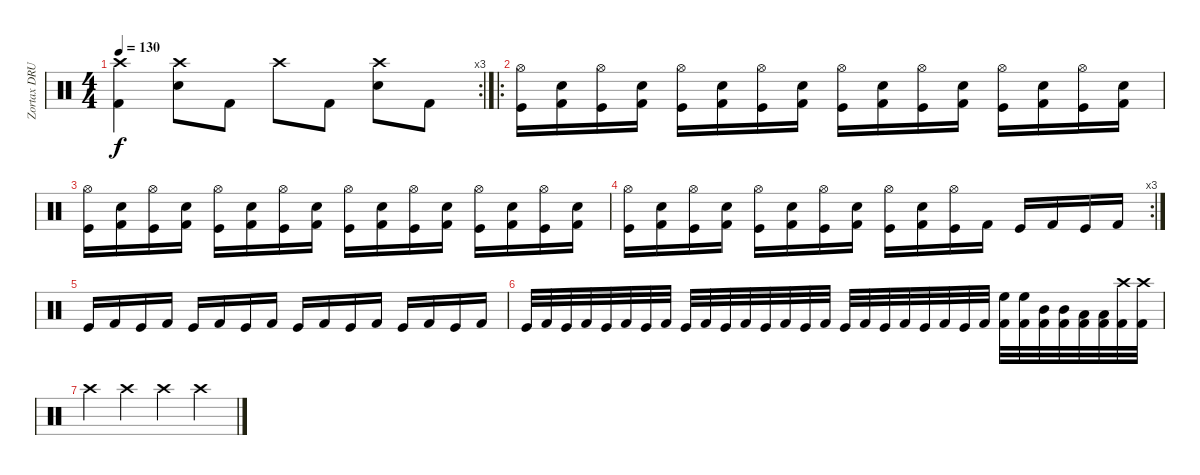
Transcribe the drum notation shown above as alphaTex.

\track ("Zortax DRUMS" "Zortax DRU") {instrument percussion}
\staff {score}
\articulation defaults
\rc 3
\ts (4 4)
\tempo 130
\clef neutral
\ks c
("Crash high (hit)" "Kick (hit) 2").4{dy f} ("Crash high (hit)" "Snare (hit) 2").8 "Kick (hit) 2".8 "Crash high (hit)".8 "Kick (hit) 2".8 ("Crash high (hit)" "Snare (hit) 2").8 "Kick (hit) 2".8 |
\ro
("Kick (hit)" "Hi-Hat (open)").16 ("Kick (hit) 2" "Snare (hit) 2").16 ("Kick (hit)" "Hi-Hat (open)").16 ("Kick (hit) 2" "Snare (hit) 2").16 ("Kick (hit)" "Hi-Hat (open)").16 ("Kick (hit) 2" "Snare (hit) 2").16 ("Kick (hit)" "Hi-Hat (open)").16 ("Kick (hit) 2" "Snare (hit) 2").16 ("Kick (hit)" "Hi-Hat (open)").16 ("Kick (hit) 2" "Snare (hit) 2").16 ("Kick (hit)" "Hi-Hat (open)").16 ("Kick (hit) 2" "Snare (hit) 2").16 ("Kick (hit)" "Hi-Hat (open)").16 ("Kick (hit) 2" "Snare (hit) 2").16 ("Kick (hit)" "Hi-Hat (open)").16 ("Kick (hit) 2" "Snare (hit) 2").16 |
("Kick (hit)" "Hi-Hat (open)").16 ("Kick (hit) 2" "Snare (hit) 2").16 ("Kick (hit)" "Hi-Hat (open)").16 ("Kick (hit) 2" "Snare (hit) 2").16 ("Kick (hit)" "Hi-Hat (open)").16 ("Kick (hit) 2" "Snare (hit) 2").16 ("Kick (hit)" "Hi-Hat (open)").16 ("Kick (hit) 2" "Snare (hit) 2").16 ("Kick (hit)" "Hi-Hat (open)").16 ("Kick (hit) 2" "Snare (hit) 2").16 ("Kick (hit)" "Hi-Hat (open)").16 ("Kick (hit) 2" "Snare (hit) 2").16 ("Kick (hit)" "Hi-Hat (open)").16 ("Kick (hit) 2" "Snare (hit) 2").16 ("Kick (hit)" "Hi-Hat (open)").16 ("Kick (hit) 2" "Snare (hit) 2").16 |
\rc 3
("Kick (hit)" "Hi-Hat (open)").16 ("Kick (hit) 2" "Snare (hit) 2").16 ("Kick (hit)" "Hi-Hat (open)").16 ("Kick (hit) 2" "Snare (hit) 2").16 ("Kick (hit)" "Hi-Hat (open)").16 ("Kick (hit) 2" "Snare (hit) 2").16 ("Kick (hit)" "Hi-Hat (open)").16 ("Kick (hit) 2" "Snare (hit) 2").16 ("Kick (hit)" "Hi-Hat (open)").16 ("Kick (hit) 2" "Snare (hit) 2").16 ("Kick (hit)" "Hi-Hat (open)").16 "Kick (hit) 2".16 "Kick (hit)".16 "Kick (hit) 2".16 "Kick (hit)".16 "Kick (hit) 2".16 |
"Kick (hit)".16 "Kick (hit) 2".16 "Kick (hit)".16 "Kick (hit) 2".16 "Kick (hit)".16 "Kick (hit) 2".16 "Kick (hit)".16 "Kick (hit) 2".16 "Kick (hit)".16 "Kick (hit) 2".16 "Kick (hit)".16 "Kick (hit) 2".16 "Kick (hit)".16 "Kick (hit) 2".16 "Kick (hit)".16 "Kick (hit) 2".16 |
"Kick (hit)".32 "Kick (hit) 2".32 "Kick (hit)".32 "Kick (hit) 2".32 "Kick (hit)".32 "Kick (hit) 2".32 "Kick (hit)".32 "Kick (hit) 2".32 "Kick (hit)".32 "Kick (hit) 2".32 "Kick (hit)".32 "Kick (hit) 2".32 "Kick (hit)".32 "Kick (hit) 2".32 "Kick (hit)".32 "Kick (hit) 2".32 "Kick (hit)".32 "Kick (hit) 2".32 "Kick (hit)".32 "Kick (hit) 2".32 "Kick (hit)".32 "Kick (hit) 2".32 "Kick (hit)".32 "Kick (hit) 2".32 ("High Floor Tom (hit)" "Kick (hit) 2").32 ("High Floor Tom (hit)" "Kick (hit) 2").32 ("Mid Tom (hit)" "Kick (hit) 2").32 ("Mid Tom (hit)" "Kick (hit) 2").32 ("Low Tom (hit)" "Kick (hit) 2").32 ("Low Tom (hit)" "Kick (hit) 2").32 ("Crash high (hit)" "Kick (hit) 2").32 ("Crash high (hit)" "Kick (hit) 2").32 |
"Crash high (hit)".4 "Crash high (hit)".4 "Crash high (hit)".4 "Crash high (hit)".4
